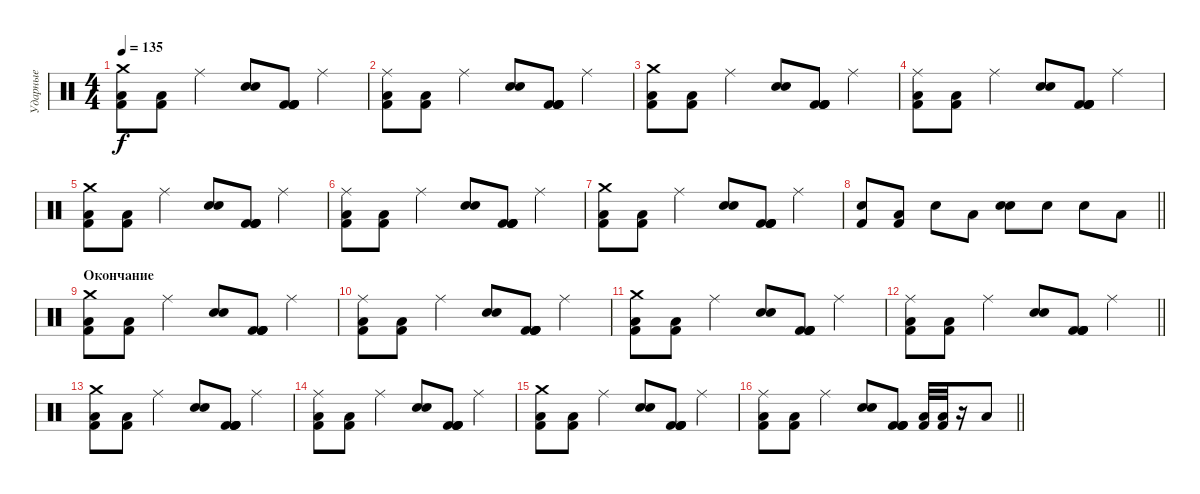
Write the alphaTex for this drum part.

\track ("Ударные" "Ударные") {instrument percussion}
\staff {score}
\articulation defaults
\ts (4 4)
\tempo 135
\clef neutral
\ks c
("Kick (hit) 2" "Low Floor Tom (hit)" "Crash medium (hit)").8{dy f} ("Kick (hit) 2" "Low Floor Tom (hit)").8 "Ride (middle)".4 ("Electric Snare (hit)" "Snare (hit) 2").8 ("Kick (hit) 2" "Kick (hit) 2" "Kick (hit) 2" "Kick (hit) 2").8 "Ride (middle)".4 |
("Kick (hit) 2" "Low Floor Tom (hit)" "Ride (middle)").8 ("Kick (hit) 2" "Low Floor Tom (hit)").8 "Ride (middle)".4 ("Electric Snare (hit)" "Snare (hit) 2").8 ("Kick (hit) 2" "Kick (hit) 2" "Kick (hit) 2" "Kick (hit) 2").8 "Ride (middle)".4 |
("Kick (hit) 2" "Low Floor Tom (hit)" "Crash medium (hit)").8 ("Kick (hit) 2" "Low Floor Tom (hit)").8 "Ride (middle)".4 ("Electric Snare (hit)" "Snare (hit) 2").8 ("Kick (hit) 2" "Kick (hit) 2" "Kick (hit) 2" "Kick (hit) 2").8 "Ride (middle)".4 |
("Kick (hit) 2" "Low Floor Tom (hit)" "Ride (middle)").8 ("Kick (hit) 2" "Low Floor Tom (hit)").8 "Ride (middle)".4 ("Electric Snare (hit)" "Snare (hit) 2").8 ("Kick (hit) 2" "Kick (hit) 2" "Kick (hit) 2" "Kick (hit) 2").8 "Ride (middle)".4 |
("Kick (hit) 2" "Low Floor Tom (hit)" "Crash medium (hit)").8 ("Kick (hit) 2" "Low Floor Tom (hit)").8 "Ride (middle)".4 ("Electric Snare (hit)" "Snare (hit) 2").8 ("Kick (hit) 2" "Kick (hit) 2" "Kick (hit) 2" "Kick (hit) 2").8 "Ride (middle)".4 |
("Kick (hit) 2" "Low Floor Tom (hit)" "Ride (middle)").8 ("Kick (hit) 2" "Low Floor Tom (hit)").8 "Ride (middle)".4 ("Electric Snare (hit)" "Snare (hit) 2").8 ("Kick (hit) 2" "Kick (hit) 2" "Kick (hit) 2" "Kick (hit) 2").8 "Ride (middle)".4 |
("Kick (hit) 2" "Low Floor Tom (hit)" "Crash medium (hit)").8 ("Kick (hit) 2" "Low Floor Tom (hit)").8 "Ride (middle)".4 ("Electric Snare (hit)" "Snare (hit) 2").8 ("Kick (hit) 2" "Kick (hit) 2" "Kick (hit) 2" "Kick (hit) 2").8 "Ride (middle)".4 |
\barLineRight lightlight
("Kick (hit) 2" "Electric Snare (hit)").8 ("Kick (hit) 2" "Low Floor Tom (hit)").8 "Electric Snare (hit)".8 "Low Floor Tom (hit)".8 ("Snare (hit) 2" "Electric Snare (hit)").8 "Electric Snare (hit)".8 "Electric Snare (hit)".8 "Low Floor Tom (hit)".8 |
\section ("" "Окончание")
("Kick (hit) 2" "Low Floor Tom (hit)" "Crash medium (hit)").8 ("Kick (hit) 2" "Low Floor Tom (hit)").8 "Ride (middle)".4 ("Electric Snare (hit)" "Snare (hit) 2").8 ("Kick (hit) 2" "Kick (hit) 2" "Kick (hit) 2" "Kick (hit) 2").8 "Ride (middle)".4 |
("Kick (hit) 2" "Low Floor Tom (hit)" "Ride (middle)").8 ("Kick (hit) 2" "Low Floor Tom (hit)").8 "Ride (middle)".4 ("Electric Snare (hit)" "Snare (hit) 2").8 ("Kick (hit) 2" "Kick (hit) 2" "Kick (hit) 2" "Kick (hit) 2").8 "Ride (middle)".4 |
("Kick (hit) 2" "Low Floor Tom (hit)" "Crash medium (hit)").8 ("Kick (hit) 2" "Low Floor Tom (hit)").8 "Ride (middle)".4 ("Electric Snare (hit)" "Snare (hit) 2").8 ("Kick (hit) 2" "Kick (hit) 2" "Kick (hit) 2" "Kick (hit) 2").8 "Ride (middle)".4 |
\barLineRight lightlight
("Kick (hit) 2" "Low Floor Tom (hit)" "Ride (middle)").8 ("Kick (hit) 2" "Low Floor Tom (hit)").8 "Ride (middle)".4 ("Electric Snare (hit)" "Snare (hit) 2").8 ("Kick (hit) 2" "Kick (hit) 2" "Kick (hit) 2" "Kick (hit) 2").8 "Ride (middle)".4 |
("Kick (hit) 2" "Low Floor Tom (hit)" "Crash medium (hit)").8 ("Kick (hit) 2" "Low Floor Tom (hit)").8 "Ride (middle)".4 ("Electric Snare (hit)" "Snare (hit) 2").8 ("Kick (hit) 2" "Kick (hit) 2" "Kick (hit) 2" "Kick (hit) 2").8 "Ride (middle)".4 |
("Kick (hit) 2" "Low Floor Tom (hit)" "Ride (middle)").8 ("Kick (hit) 2" "Low Floor Tom (hit)").8 "Ride (middle)".4 ("Electric Snare (hit)" "Snare (hit) 2").8 ("Kick (hit) 2" "Kick (hit) 2" "Kick (hit) 2" "Kick (hit) 2").8 "Ride (middle)".4 |
("Kick (hit) 2" "Low Floor Tom (hit)" "Crash medium (hit)").8 ("Kick (hit) 2" "Low Floor Tom (hit)").8 "Ride (middle)".4 ("Electric Snare (hit)" "Snare (hit) 2").8 ("Kick (hit) 2" "Kick (hit) 2" "Kick (hit) 2" "Kick (hit) 2").8 "Ride (middle)".4 |
\barLineRight lightlight
("Kick (hit) 2" "Low Floor Tom (hit)" "Ride (middle)").8 ("Kick (hit) 2" "Low Floor Tom (hit)").8 "Ride (middle)".4 ("Electric Snare (hit)" "Snare (hit) 2").8 ("Kick (hit) 2" "Kick (hit) 2" "Kick (hit) 2" "Kick (hit) 2").8 ("Low Floor Tom (hit)" "Kick (hit) 2").32 ("Low Floor Tom (hit)" "Kick (hit) 2").32 r.16 "Low Floor Tom (hit)".8
